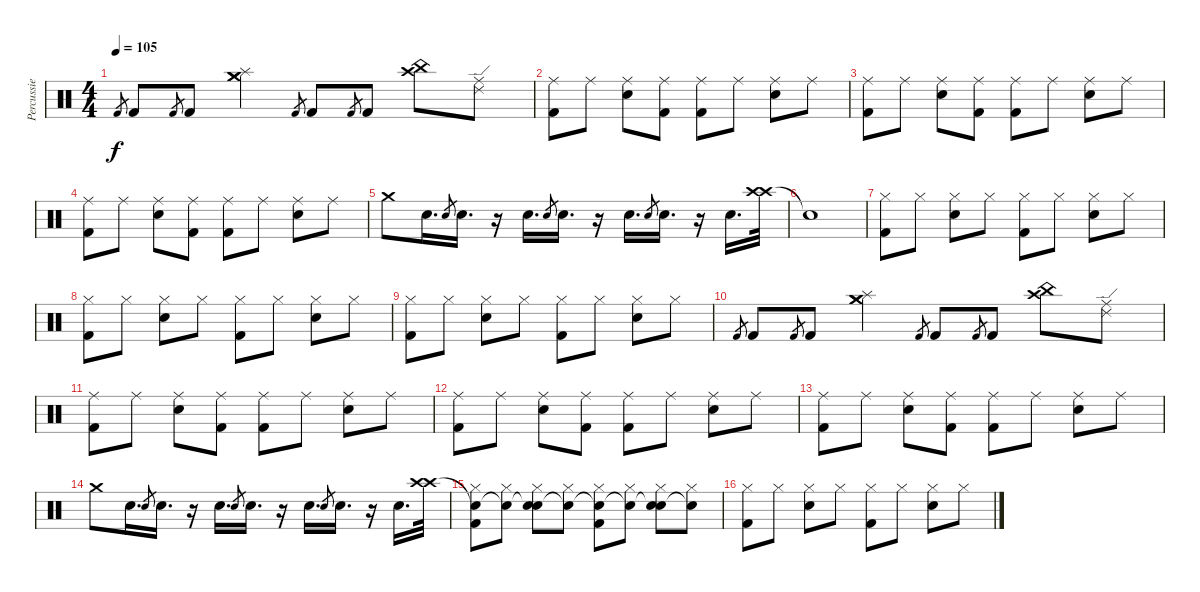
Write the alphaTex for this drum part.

\track ("Percussie" "Percussie") {instrument percussion}
\staff {score}
\articulation defaults
\ts (4 4)
\tempo 105
\clef neutral
\ks c "Kick (hit) 2".8{gr dy f} "Kick (hit) 2".8 "Kick (hit) 2".8{gr} "Kick (hit) 2".8
("Crash medium (hit)" "Crash medium (hit)" "Splash (hit)").4 "Kick (hit) 2".8{gr} "Kick (hit) 2".8 "Kick (hit) 2".8{gr} "Kick (hit) 2".8 ("Crash high (hit)" "China (hit)").8 ("Ride (middle)" "Ride (edge) 2").8 |
("Ride (middle)" "Kick (hit) 2").8 "Ride (middle)".8 ("Ride (middle)" "Snare (hit) 2").8 ("Ride (middle)" "Kick (hit) 2").8 ("Ride (middle)" "Kick (hit) 2").8 "Ride (middle)".8 ("Ride (middle)" "Snare (hit) 2").8 "Ride (middle)".8 |
("Ride (middle)" "Kick (hit) 2").8 "Ride (middle)".8 ("Ride (middle)" "Snare (hit) 2").8 ("Ride (middle)" "Kick (hit) 2").8 ("Ride (middle)" "Kick (hit) 2").8 "Ride (middle)".8 ("Ride (middle)" "Snare (hit) 2").8 "Ride (middle)".8 |
("Ride (middle)" "Kick (hit) 2").8 "Ride (middle)".8 ("Ride (middle)" "Snare (hit) 2").8 ("Ride (middle)" "Kick (hit) 2").8 ("Ride (middle)" "Kick (hit) 2").8 "Ride (middle)".8 ("Ride (middle)" "Snare (hit) 2").8 "Ride (middle)".8 |
"Crash medium (hit)".8 "Snare (hit) 2".16{d} "Snare (hit) 2".8{gr} "Snare (hit) 2".16{d} r.16 "Snare (hit) 2".16{d} "Snare (hit) 2".8{gr} "Snare (hit) 2".16{d} r.16 "Snare (hit) 2".16{d} "Snare (hit) 2".8{gr} "Snare (hit) 2".16{d} r.16 "Snare (hit) 2".16{d} ("Crash high (hit)" "Crash high (hit)").32 |
"Snare (hit)"{t}.1 |
("Hi-Hat (closed)" "Kick (hit) 2").8 "Hi-Hat (closed)".8 ("Hi-Hat (closed)" "Snare (hit) 2").8 "Hi-Hat (closed)".8 ("Hi-Hat (closed)" "Kick (hit) 2").8 "Hi-Hat (closed)".8 ("Hi-Hat (closed)" "Snare (hit) 2").8 "Hi-Hat (closed)".8 |
("Hi-Hat (closed)" "Kick (hit) 2").8 "Hi-Hat (closed)".8 ("Hi-Hat (closed)" "Snare (hit) 2").8 "Hi-Hat (closed)".8 ("Hi-Hat (closed)" "Kick (hit) 2").8 "Hi-Hat (closed)".8 ("Hi-Hat (closed)" "Snare (hit) 2").8 "Hi-Hat (closed)".8 |
("Hi-Hat (closed)" "Kick (hit) 2").8 "Hi-Hat (closed)".8 ("Hi-Hat (closed)" "Snare (hit) 2").8 "Hi-Hat (closed)".8 ("Hi-Hat (closed)" "Kick (hit) 2").8 "Hi-Hat (closed)".8 ("Hi-Hat (closed)" "Snare (hit) 2").8 "Hi-Hat (closed)".8 |
"Kick (hit) 2".8{gr} "Kick (hit) 2".8 "Kick (hit) 2".8{gr} "Kick (hit) 2".8 ("Crash medium (hit)" "Crash medium (hit)" "Splash (hit)").4 "Kick (hit) 2".8{gr} "Kick (hit) 2".8 "Kick (hit) 2".8{gr} "Kick (hit) 2".8 ("Crash high (hit)" "China (hit)").8 ("Ride (middle)" "Ride (edge) 2").8 |
("Ride (middle)" "Kick (hit) 2").8 "Ride (middle)".8 ("Ride (middle)" "Snare (hit) 2").8 ("Ride (middle)" "Kick (hit) 2").8 ("Ride (middle)" "Kick (hit) 2").8 "Ride (middle)".8 ("Ride (middle)" "Snare (hit) 2").8 "Ride (middle)".8 |
("Ride (middle)" "Kick (hit) 2").8 "Ride (middle)".8 ("Ride (middle)" "Snare (hit) 2").8 ("Ride (middle)" "Kick (hit) 2").8 ("Ride (middle)" "Kick (hit) 2").8 "Ride (middle)".8 ("Ride (middle)" "Snare (hit) 2").8 "Ride (middle)".8 |
("Ride (middle)" "Kick (hit) 2").8 "Ride (middle)".8 ("Ride (middle)" "Snare (hit) 2").8 ("Ride (middle)" "Kick (hit) 2").8 ("Ride (middle)" "Kick (hit) 2").8 "Ride (middle)".8 ("Ride (middle)" "Snare (hit) 2").8 "Ride (middle)".8 |
"Crash medium (hit)".8 "Snare (hit) 2".16{d} "Snare (hit) 2".8{gr} "Snare (hit) 2".16{d} r.16 "Snare (hit) 2".16{d} "Snare (hit) 2".8{gr} "Snare (hit) 2".16{d} r.16 "Snare (hit) 2".16{d} "Snare (hit) 2".8{gr} "Snare (hit) 2".16{d} r.16 "Snare (hit) 2".16{d} ("Crash high (hit)" "Crash high (hit)").32 |
("Snare (hit)"{t} "Hi-Hat (closed)" "Kick (hit) 2").8 ("Snare (hit)"{t} "Hi-Hat (closed)").8 ("Snare (hit)"{t} "Hi-Hat (closed)" "Snare (hit) 2").8 ("Snare (hit)"{t} "Hi-Hat (closed)").8 ("Snare (hit)"{t} "Hi-Hat (closed)" "Kick (hit) 2").8 ("Snare (hit)"{t} "Hi-Hat (closed)").8 ("Snare (hit)"{t} "Hi-Hat (closed)" "Snare (hit) 2").8 ("Snare (hit)"{t} "Hi-Hat (closed)").8 |
("Hi-Hat (closed)" "Kick (hit) 2").8 "Hi-Hat (closed)".8 ("Hi-Hat (closed)" "Snare (hit) 2").8 "Hi-Hat (closed)".8 ("Hi-Hat (closed)" "Kick (hit) 2").8 "Hi-Hat (closed)".8 ("Hi-Hat (closed)" "Snare (hit) 2").8 "Hi-Hat (closed)".8
